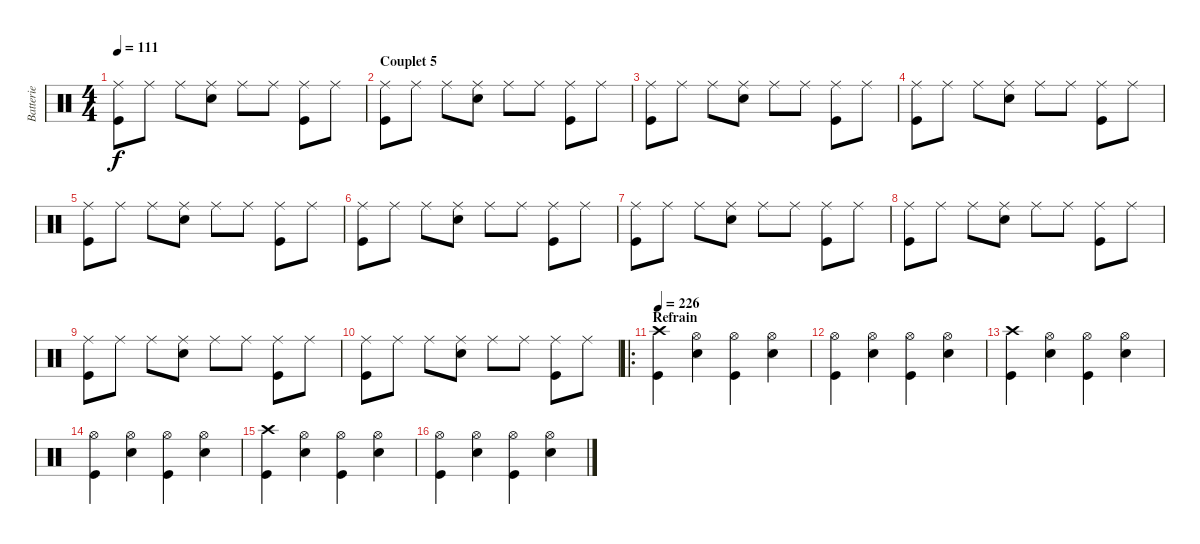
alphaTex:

\track ("Batterie" "Batterie") {instrument percussion}
\staff {score}
\articulation defaults
\ts (4 4)
\tempo 111
\clef neutral
\ks c
("Ride (middle)" "Kick (hit)").8{dy f} "Ride (middle)".8 "Ride (middle)".8 ("Ride (middle)" "Electric Snare (hit)").8 "Ride (middle)".8 "Ride (middle)".8 ("Ride (middle)" "Kick (hit)").8 "Ride (middle)".8 |
\section ("" "Couplet 5")
("Ride (middle)" "Kick (hit)").8 "Ride (middle)".8 "Ride (middle)".8 ("Ride (middle)" "Electric Snare (hit)").8 "Ride (middle)".8 "Ride (middle)".8 ("Ride (middle)" "Kick (hit)").8 "Ride (middle)".8 |
("Ride (middle)" "Kick (hit)").8 "Ride (middle)".8 "Ride (middle)".8 ("Ride (middle)" "Electric Snare (hit)").8 "Ride (middle)".8 "Ride (middle)".8 ("Ride (middle)" "Kick (hit)").8 "Ride (middle)".8 |
("Ride (middle)" "Kick (hit)").8 "Ride (middle)".8 "Ride (middle)".8 ("Ride (middle)" "Electric Snare (hit)").8 "Ride (middle)".8 "Ride (middle)".8 ("Ride (middle)" "Kick (hit)").8 "Ride (middle)".8 |
("Ride (middle)" "Kick (hit)").8 "Ride (middle)".8 "Ride (middle)".8 ("Ride (middle)" "Electric Snare (hit)").8 "Ride (middle)".8 "Ride (middle)".8 ("Ride (middle)" "Kick (hit)").8 "Ride (middle)".8 |
("Ride (middle)" "Kick (hit)").8 "Ride (middle)".8 "Ride (middle)".8 ("Ride (middle)" "Electric Snare (hit)").8 "Ride (middle)".8 "Ride (middle)".8 ("Ride (middle)" "Kick (hit)").8 "Ride (middle)".8 |
("Ride (middle)" "Kick (hit)").8 "Ride (middle)".8 "Ride (middle)".8 ("Ride (middle)" "Electric Snare (hit)").8 "Ride (middle)".8 "Ride (middle)".8 ("Ride (middle)" "Kick (hit)").8 "Ride (middle)".8 |
("Ride (middle)" "Kick (hit)").8 "Ride (middle)".8 "Ride (middle)".8 ("Ride (middle)" "Electric Snare (hit)").8 "Ride (middle)".8 "Ride (middle)".8 ("Ride (middle)" "Kick (hit)").8 "Ride (middle)".8 |
("Ride (middle)" "Kick (hit)").8 "Ride (middle)".8 "Ride (middle)".8 ("Ride (middle)" "Electric Snare (hit)").8 "Ride (middle)".8 "Ride (middle)".8 ("Ride (middle)" "Kick (hit)").8 "Ride (middle)".8 |
("Ride (middle)" "Kick (hit)").8 "Ride (middle)".8 "Ride (middle)".8 ("Ride (middle)" "Electric Snare (hit)").8 "Ride (middle)".8 "Ride (middle)".8 ("Ride (middle)" "Kick (hit)").8 "Ride (middle)".8 |
\ro
\section ("" "Refrain")
\tempo 226
("Crash high (hit)" "Kick (hit)").4 ("Hi-Hat (open)" "Electric Snare (hit)").4 ("Hi-Hat (open)" "Kick (hit)").4 ("Hi-Hat (open)" "Electric Snare (hit)").4 |
("Hi-Hat (open)" "Kick (hit)").4 ("Hi-Hat (open)" "Electric Snare (hit)").4 ("Hi-Hat (open)" "Kick (hit)").4 ("Hi-Hat (open)" "Electric Snare (hit)").4 |
("Crash high (hit)" "Kick (hit)").4 ("Hi-Hat (open)" "Electric Snare (hit)").4 ("Hi-Hat (open)" "Kick (hit)").4 ("Hi-Hat (open)" "Electric Snare (hit)").4 |
("Hi-Hat (open)" "Kick (hit)").4 ("Hi-Hat (open)" "Electric Snare (hit)").4 ("Hi-Hat (open)" "Kick (hit)").4 ("Hi-Hat (open)" "Electric Snare (hit)").4 |
("Crash high (hit)" "Kick (hit)").4 ("Hi-Hat (open)" "Electric Snare (hit)").4 ("Hi-Hat (open)" "Kick (hit)").4 ("Hi-Hat (open)" "Electric Snare (hit)").4 |
("Hi-Hat (open)" "Kick (hit)").4 ("Hi-Hat (open)" "Electric Snare (hit)").4 ("Hi-Hat (open)" "Kick (hit)").4 ("Hi-Hat (open)" "Electric Snare (hit)").4
